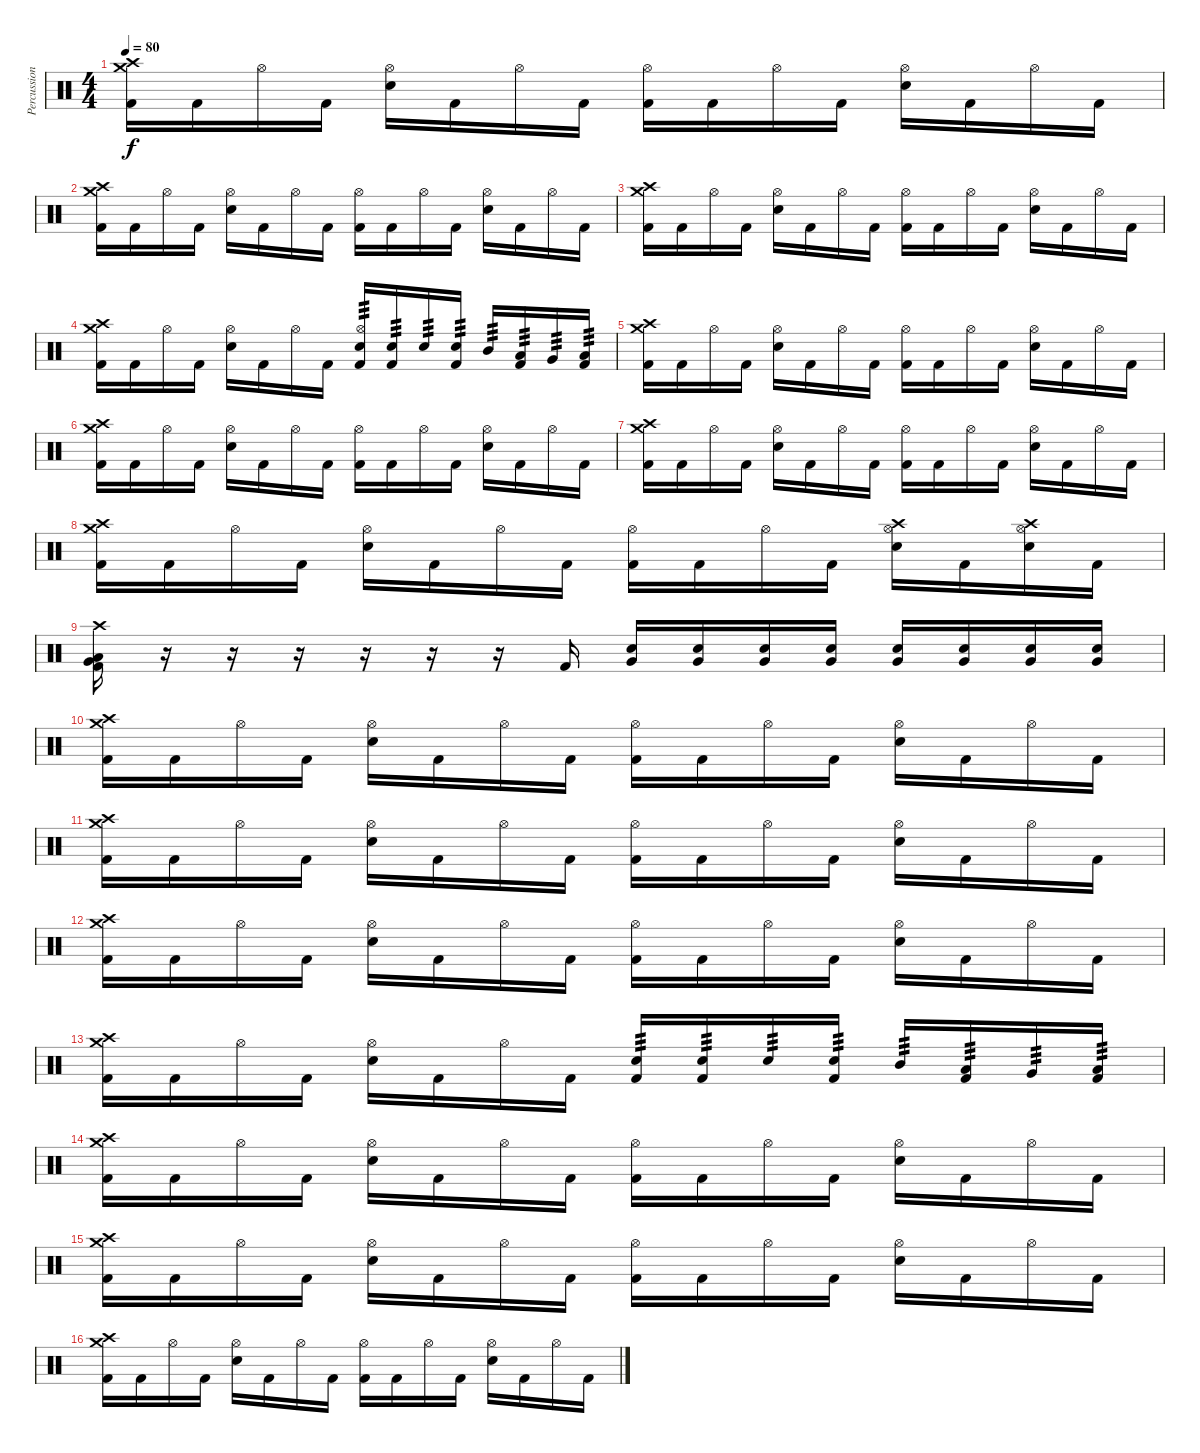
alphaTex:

\track ("Percussion" "Percussion") {instrument percussion}
\staff {score}
\articulation defaults
\ts (4 4)
\tempo 80
\clef neutral
\ks c
("Crash medium (hit)" "Crash high (hit)" "Kick (hit) 2").16{dy f} "Kick (hit) 2".16 "Hi-Hat (open)".16 "Kick (hit) 2".16 ("Hi-Hat (open)" "Electric Snare (hit)").16 "Kick (hit) 2".16 "Hi-Hat (open)".16 "Kick (hit) 2".16 ("Hi-Hat (open)" "Kick (hit) 2").16 "Kick (hit) 2".16 "Hi-Hat (open)".16 "Kick (hit) 2".16 ("Hi-Hat (open)" "Electric Snare (hit)").16 "Kick (hit) 2".16 "Hi-Hat (open)".16 "Kick (hit) 2".16 |
("Crash medium (hit)" "Crash high (hit)" "Kick (hit) 2").16 "Kick (hit) 2".16 "Hi-Hat (open)".16 "Kick (hit) 2".16 ("Hi-Hat (open)" "Electric Snare (hit)").16 "Kick (hit) 2".16 "Hi-Hat (open)".16 "Kick (hit) 2".16 ("Hi-Hat (open)" "Kick (hit) 2").16 "Kick (hit) 2".16 "Hi-Hat (open)".16 "Kick (hit) 2".16 ("Hi-Hat (open)" "Electric Snare (hit)").16 "Kick (hit) 2".16 "Hi-Hat (open)".16 "Kick (hit) 2".16 |
("Crash medium (hit)" "Crash high (hit)" "Kick (hit) 2").16 "Kick (hit) 2".16 "Hi-Hat (open)".16 "Kick (hit) 2".16 ("Hi-Hat (open)" "Electric Snare (hit)").16 "Kick (hit) 2".16 "Hi-Hat (open)".16 "Kick (hit) 2".16 ("Hi-Hat (open)" "Kick (hit) 2").16 "Kick (hit) 2".16 "Hi-Hat (open)".16 "Kick (hit) 2".16 ("Hi-Hat (open)" "Electric Snare (hit)").16 "Kick (hit) 2".16 "Hi-Hat (open)".16 "Kick (hit) 2".16 |
("Crash medium (hit)" "Crash high (hit)" "Kick (hit) 2").16 "Kick (hit) 2".16 "Hi-Hat (open)".16 "Kick (hit) 2".16 ("Hi-Hat (open)" "Electric Snare (hit)").16 "Kick (hit) 2".16 "Hi-Hat (open)".16 "Kick (hit) 2".16 ("Hi-Hat (open)" "Electric Snare (hit)" "Kick (hit) 2").16{tp 3} ("Electric Snare (hit)" "Kick (hit) 2").16{tp 3} "Electric Snare (hit)".16{tp 3} ("Electric Snare (hit)" "Kick (hit) 2").16{tp 3} "Mid Tom (hit)".16{tp 3} ("Low Tom (hit)" "Kick (hit) 2").16{tp 3} "Very Low Tom (hit)".16{tp 3} ("Low Floor Tom (hit)" "Kick (hit) 2").16{tp 3} |
("Crash medium (hit)" "Crash high (hit)" "Kick (hit) 2").16 "Kick (hit) 2".16 "Hi-Hat (open)".16 "Kick (hit) 2".16 ("Hi-Hat (open)" "Electric Snare (hit)").16 "Kick (hit) 2".16 "Hi-Hat (open)".16 "Kick (hit) 2".16 ("Hi-Hat (open)" "Kick (hit) 2").16 "Kick (hit) 2".16 "Hi-Hat (open)".16 "Kick (hit) 2".16 ("Hi-Hat (open)" "Electric Snare (hit)").16 "Kick (hit) 2".16 "Hi-Hat (open)".16 "Kick (hit) 2".16 |
("Crash medium (hit)" "Crash high (hit)" "Kick (hit) 2").16 "Kick (hit) 2".16 "Hi-Hat (open)".16 "Kick (hit) 2".16 ("Hi-Hat (open)" "Electric Snare (hit)").16 "Kick (hit) 2".16 "Hi-Hat (open)".16 "Kick (hit) 2".16 ("Hi-Hat (open)" "Kick (hit) 2").16 "Kick (hit) 2".16 "Hi-Hat (open)".16 "Kick (hit) 2".16 ("Hi-Hat (open)" "Electric Snare (hit)").16 "Kick (hit) 2".16 "Hi-Hat (open)".16 "Kick (hit) 2".16 |
("Crash medium (hit)" "Crash high (hit)" "Kick (hit) 2").16 "Kick (hit) 2".16 "Hi-Hat (open)".16 "Kick (hit) 2".16 ("Hi-Hat (open)" "Electric Snare (hit)").16 "Kick (hit) 2".16 "Hi-Hat (open)".16 "Kick (hit) 2".16 ("Hi-Hat (open)" "Kick (hit) 2").16 "Kick (hit) 2".16 "Hi-Hat (open)".16 "Kick (hit) 2".16 ("Hi-Hat (open)" "Electric Snare (hit)").16 "Kick (hit) 2".16 "Hi-Hat (open)".16 "Kick (hit) 2".16 |
("Crash medium (hit)" "Crash high (hit)" "Kick (hit) 2").16 "Kick (hit) 2".16 "Hi-Hat (open)".16 "Kick (hit) 2".16 ("Hi-Hat (open)" "Electric Snare (hit)").16 "Kick (hit) 2".16 "Hi-Hat (open)".16 "Kick (hit) 2".16 ("Hi-Hat (open)" "Kick (hit) 2").16 "Kick (hit) 2".16 "Hi-Hat (open)".16 "Kick (hit) 2".16 ("Crash high (hit)" "Hi-Hat (open)" "Electric Snare (hit)").16 "Kick (hit) 2".16 ("Crash high (hit)" "Hi-Hat (open)" "Electric Snare (hit)").16 "Kick (hit) 2".16 |
("Very Low Tom (hit)" "Low Floor Tom (hit)" "Crash high (hit)" "Kick (hit) 2").16 r.16 r.16 r.16 r.16 r.16 r.16 "Kick (hit) 2".16 ("Electric Snare (hit)" "Very Low Tom (hit)").16 ("Electric Snare (hit)" "Very Low Tom (hit)").16 ("Electric Snare (hit)" "Very Low Tom (hit)").16 ("Electric Snare (hit)" "Very Low Tom (hit)").16 ("Electric Snare (hit)" "Very Low Tom (hit)").16 ("Electric Snare (hit)" "Very Low Tom (hit)").16 ("Electric Snare (hit)" "Very Low Tom (hit)").16 ("Electric Snare (hit)" "Very Low Tom (hit)").16 |
("Crash medium (hit)" "Crash high (hit)" "Kick (hit) 2").16 "Kick (hit) 2".16 "Hi-Hat (open)".16 "Kick (hit) 2".16 ("Hi-Hat (open)" "Electric Snare (hit)").16 "Kick (hit) 2".16 "Hi-Hat (open)".16 "Kick (hit) 2".16 ("Hi-Hat (open)" "Kick (hit) 2").16 "Kick (hit) 2".16 "Hi-Hat (open)".16 "Kick (hit) 2".16 ("Hi-Hat (open)" "Electric Snare (hit)").16 "Kick (hit) 2".16 "Hi-Hat (open)".16 "Kick (hit) 2".16 |
("Crash medium (hit)" "Crash high (hit)" "Kick (hit) 2").16 "Kick (hit) 2".16 "Hi-Hat (open)".16 "Kick (hit) 2".16 ("Hi-Hat (open)" "Electric Snare (hit)").16 "Kick (hit) 2".16 "Hi-Hat (open)".16 "Kick (hit) 2".16 ("Hi-Hat (open)" "Kick (hit) 2").16 "Kick (hit) 2".16 "Hi-Hat (open)".16 "Kick (hit) 2".16 ("Hi-Hat (open)" "Electric Snare (hit)").16 "Kick (hit) 2".16 "Hi-Hat (open)".16 "Kick (hit) 2".16 |
("Crash medium (hit)" "Crash high (hit)" "Kick (hit) 2").16 "Kick (hit) 2".16 "Hi-Hat (open)".16 "Kick (hit) 2".16 ("Hi-Hat (open)" "Electric Snare (hit)").16 "Kick (hit) 2".16 "Hi-Hat (open)".16 "Kick (hit) 2".16 ("Hi-Hat (open)" "Kick (hit) 2").16 "Kick (hit) 2".16 "Hi-Hat (open)".16 "Kick (hit) 2".16 ("Hi-Hat (open)" "Electric Snare (hit)").16 "Kick (hit) 2".16 "Hi-Hat (open)".16 "Kick (hit) 2".16 |
("Crash medium (hit)" "Crash high (hit)" "Kick (hit) 2").16 "Kick (hit) 2".16 "Hi-Hat (open)".16 "Kick (hit) 2".16 ("Hi-Hat (open)" "Electric Snare (hit)").16 "Kick (hit) 2".16 "Hi-Hat (open)".16 "Kick (hit) 2".16 ("Electric Snare (hit)" "Kick (hit) 2").16{tp 3} ("Electric Snare (hit)" "Kick (hit) 2").16{tp 3} "Electric Snare (hit)".16{tp 3} ("Electric Snare (hit)" "Kick (hit) 2").16{tp 3} "Mid Tom (hit)".16{tp 3} ("Low Tom (hit)" "Kick (hit) 2").16{tp 3} "Very Low Tom (hit)".16{tp 3} ("Low Floor Tom (hit)" "Kick (hit) 2").16{tp 3} |
("Crash medium (hit)" "Crash high (hit)" "Kick (hit) 2").16 "Kick (hit) 2".16 "Hi-Hat (open)".16 "Kick (hit) 2".16 ("Hi-Hat (open)" "Electric Snare (hit)").16 "Kick (hit) 2".16 "Hi-Hat (open)".16 "Kick (hit) 2".16 ("Hi-Hat (open)" "Kick (hit) 2").16 "Kick (hit) 2".16 "Hi-Hat (open)".16 "Kick (hit) 2".16 ("Hi-Hat (open)" "Electric Snare (hit)").16 "Kick (hit) 2".16 "Hi-Hat (open)".16 "Kick (hit) 2".16 |
("Crash medium (hit)" "Crash high (hit)" "Kick (hit) 2").16 "Kick (hit) 2".16 "Hi-Hat (open)".16 "Kick (hit) 2".16 ("Hi-Hat (open)" "Electric Snare (hit)").16 "Kick (hit) 2".16 "Hi-Hat (open)".16 "Kick (hit) 2".16 ("Hi-Hat (open)" "Kick (hit) 2").16 "Kick (hit) 2".16 "Hi-Hat (open)".16 "Kick (hit) 2".16 ("Hi-Hat (open)" "Electric Snare (hit)").16 "Kick (hit) 2".16 "Hi-Hat (open)".16 "Kick (hit) 2".16 |
("Crash medium (hit)" "Crash high (hit)" "Kick (hit) 2").16 "Kick (hit) 2".16 "Hi-Hat (open)".16 "Kick (hit) 2".16 ("Hi-Hat (open)" "Electric Snare (hit)").16 "Kick (hit) 2".16 "Hi-Hat (open)".16 "Kick (hit) 2".16 ("Hi-Hat (open)" "Kick (hit) 2").16 "Kick (hit) 2".16 "Hi-Hat (open)".16 "Kick (hit) 2".16 ("Hi-Hat (open)" "Electric Snare (hit)").16 "Kick (hit) 2".16 "Hi-Hat (open)".16 "Kick (hit) 2".16
